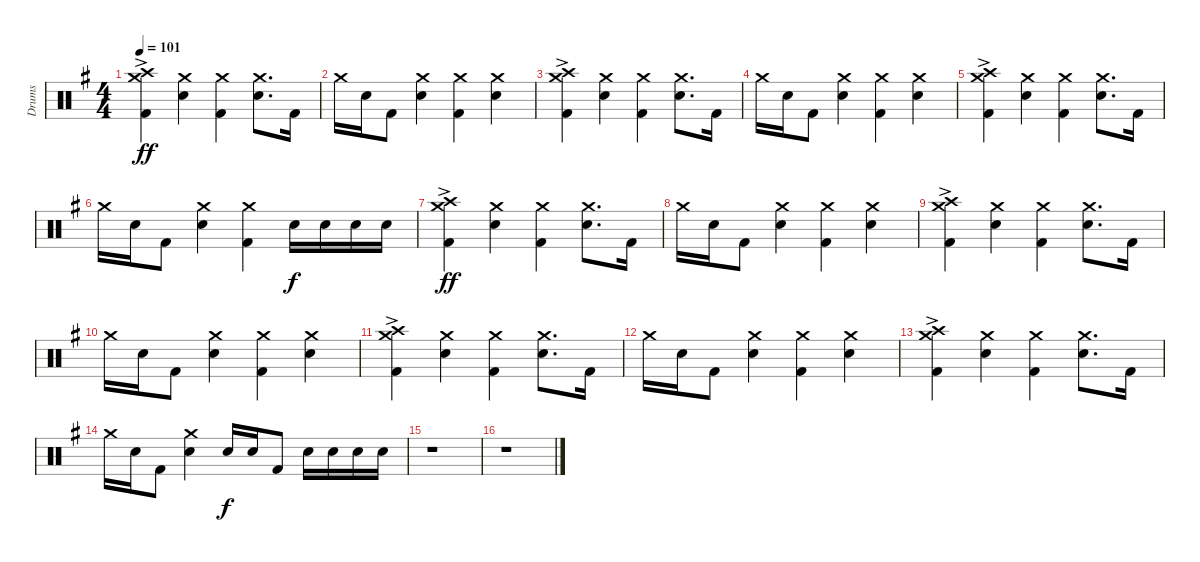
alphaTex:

\track ("Drums" "Drums") {instrument percussion}
\staff {score}
\articulation defaults
\ts (4 4)
\tempo 101
\clef neutral
\ks eminor
("Crash medium (hit)"{ac} "Crash high (hit)"{ac} "Kick (hit) 2").4{dy ff} ("Crash medium (hit)" "Snare (hit) 2").4 ("Crash medium (hit)" "Kick (hit) 2").4 ("Crash medium (hit)" "Snare (hit) 2").8{d} "Kick (hit) 2".16 |
"Crash medium (hit)".16 "Snare (hit) 2".16 "Kick (hit) 2".8 ("Crash medium (hit)" "Snare (hit) 2").4 ("Crash medium (hit)" "Kick (hit) 2").4 ("Crash medium (hit)" "Snare (hit) 2").4 |
("Crash medium (hit)"{ac} "Crash high (hit)"{ac} "Kick (hit) 2").4 ("Crash medium (hit)" "Snare (hit) 2").4 ("Crash medium (hit)" "Kick (hit) 2").4 ("Crash medium (hit)" "Snare (hit) 2").8{d} "Kick (hit) 2".16 |
"Crash medium (hit)".16 "Snare (hit) 2".16 "Kick (hit) 2".8 ("Crash medium (hit)" "Snare (hit) 2").4 ("Crash medium (hit)" "Kick (hit) 2").4 ("Crash medium (hit)" "Snare (hit) 2").4 |
("Crash medium (hit)"{ac} "Crash high (hit)"{ac} "Kick (hit) 2").4 ("Crash medium (hit)" "Snare (hit) 2").4 ("Crash medium (hit)" "Kick (hit) 2").4 ("Crash medium (hit)" "Snare (hit) 2").8{d} "Kick (hit) 2".16 |
"Crash medium (hit)".16 "Snare (hit) 2".16 "Kick (hit) 2".8 ("Crash medium (hit)" "Snare (hit) 2").4 ("Crash medium (hit)" "Kick (hit) 2").4 "Snare (hit) 2".16{dy f} "Snare (hit) 2".16 "Snare (hit) 2".16 "Snare (hit) 2".16 |
("Crash medium (hit)"{ac} "Crash high (hit)"{ac} "Kick (hit) 2").4{dy ff} ("Crash medium (hit)" "Snare (hit) 2").4 ("Crash medium (hit)" "Kick (hit) 2").4 ("Crash medium (hit)" "Snare (hit) 2").8{d} "Kick (hit) 2".16 |
"Crash medium (hit)".16 "Snare (hit) 2".16 "Kick (hit) 2".8 ("Crash medium (hit)" "Snare (hit) 2").4 ("Crash medium (hit)" "Kick (hit) 2").4 ("Crash medium (hit)" "Snare (hit) 2").4 |
("Crash medium (hit)"{ac} "Crash high (hit)"{ac} "Kick (hit) 2").4 ("Crash medium (hit)" "Snare (hit) 2").4 ("Crash medium (hit)" "Kick (hit) 2").4 ("Crash medium (hit)" "Snare (hit) 2").8{d} "Kick (hit) 2".16 |
"Crash medium (hit)".16 "Snare (hit) 2".16 "Kick (hit) 2".8 ("Crash medium (hit)" "Snare (hit) 2").4 ("Crash medium (hit)" "Kick (hit) 2").4 ("Crash medium (hit)" "Snare (hit) 2").4 |
("Crash medium (hit)"{ac} "Crash high (hit)"{ac} "Kick (hit) 2").4 ("Crash medium (hit)" "Snare (hit) 2").4 ("Crash medium (hit)" "Kick (hit) 2").4 ("Crash medium (hit)" "Snare (hit) 2").8{d} "Kick (hit) 2".16 |
"Crash medium (hit)".16 "Snare (hit) 2".16 "Kick (hit) 2".8 ("Crash medium (hit)" "Snare (hit) 2").4 ("Crash medium (hit)" "Kick (hit) 2").4 ("Crash medium (hit)" "Snare (hit) 2").4 |
("Crash medium (hit)"{ac} "Crash high (hit)"{ac} "Kick (hit) 2").4 ("Crash medium (hit)" "Snare (hit) 2").4 ("Crash medium (hit)" "Kick (hit) 2").4 ("Crash medium (hit)" "Snare (hit) 2").8{d} "Kick (hit) 2".16 |
"Crash medium (hit)".16 "Snare (hit) 2".16 "Kick (hit) 2".8 ("Crash medium (hit)" "Snare (hit) 2").4 "Snare (hit) 2".16{dy f} "Snare (hit) 2".16 "Kick (hit) 2".8 "Snare (hit) 2".16 "Snare (hit) 2".16 "Snare (hit) 2".16 "Snare (hit) 2".16 |
r.1 |
r.1
